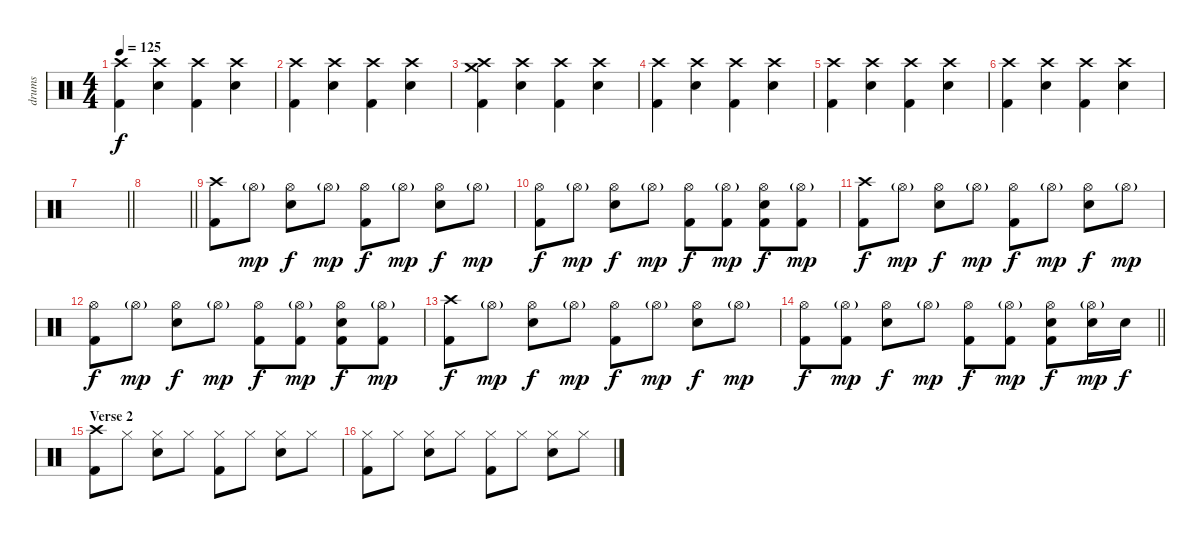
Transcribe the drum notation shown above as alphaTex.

\track ("drums" "drums") {instrument percussion}
\staff {score}
\articulation defaults
\ts (4 4)
\tempo 125
\clef neutral
\ks c
("Crash high (hit)" "Kick (hit) 2").4{dy f} ("Crash high (hit)" "Snare (hit) 2").4 ("Crash high (hit)" "Kick (hit) 2").4 ("Crash high (hit)" "Snare (hit) 2").4 |
("Crash high (hit)" "Kick (hit) 2").4 ("Crash high (hit)" "Snare (hit) 2").4 ("Crash high (hit)" "Kick (hit) 2").4 ("Crash high (hit)" "Snare (hit) 2").4 |
("Crash high (hit)" "Crash medium (hit)" "Kick (hit) 2").4 ("Crash high (hit)" "Snare (hit) 2").4 ("Crash high (hit)" "Kick (hit) 2").4 ("Crash high (hit)" "Snare (hit) 2").4 |
("Crash high (hit)" "Kick (hit) 2").4 ("Crash high (hit)" "Snare (hit) 2").4 ("Crash high (hit)" "Kick (hit) 2").4 ("Crash high (hit)" "Snare (hit) 2").4 |
("Crash high (hit)" "Kick (hit) 2").4 ("Crash high (hit)" "Snare (hit) 2").4 ("Crash high (hit)" "Kick (hit) 2").4 ("Crash high (hit)" "Snare (hit) 2").4 |
("Crash high (hit)" "Kick (hit) 2").4 ("Crash high (hit)" "Snare (hit) 2").4 ("Crash high (hit)" "Kick (hit) 2").4 ("Crash high (hit)" "Snare (hit) 2").4 |
\barLineRight lightlight
|
\barLineRight lightlight
|
("Crash high (hit)" "Kick (hit) 2").8 "Hi-Hat (open)"{g}.8{dy mp} ("Hi-Hat (open)" "Snare (hit) 2").8{dy f} "Hi-Hat (open)"{g}.8{dy mp} ("Hi-Hat (open)" "Kick (hit) 2").8{dy f} "Hi-Hat (open)"{g}.8{dy mp} ("Hi-Hat (open)" "Snare (hit) 2").8{dy f} "Hi-Hat (open)"{g}.8{dy mp} |
("Hi-Hat (open)" "Kick (hit) 2").8{dy f} "Hi-Hat (open)"{g}.8{dy mp} ("Hi-Hat (open)" "Snare (hit) 2").8{dy f} "Hi-Hat (open)"{g}.8{dy mp} ("Hi-Hat (open)" "Kick (hit) 2").8{dy f} ("Hi-Hat (open)"{g} "Kick (hit) 2").8{dy mp} ("Hi-Hat (open)" "Snare (hit) 2" "Kick (hit) 2").8{dy f} ("Hi-Hat (open)"{g} "Kick (hit) 2").8{dy mp} |
("Crash high (hit)" "Kick (hit) 2").8{dy f} "Hi-Hat (open)"{g}.8{dy mp} ("Hi-Hat (open)" "Snare (hit) 2").8{dy f} "Hi-Hat (open)"{g}.8{dy mp} ("Hi-Hat (open)" "Kick (hit) 2").8{dy f} "Hi-Hat (open)"{g}.8{dy mp} ("Hi-Hat (open)" "Snare (hit) 2").8{dy f} "Hi-Hat (open)"{g}.8{dy mp} |
("Hi-Hat (open)" "Kick (hit) 2").8{dy f} "Hi-Hat (open)"{g}.8{dy mp} ("Hi-Hat (open)" "Snare (hit) 2").8{dy f} "Hi-Hat (open)"{g}.8{dy mp} ("Hi-Hat (open)" "Kick (hit) 2").8{dy f} ("Hi-Hat (open)"{g} "Kick (hit) 2").8{dy mp} ("Hi-Hat (open)" "Snare (hit) 2" "Kick (hit) 2").8{dy f} ("Hi-Hat (open)"{g} "Kick (hit) 2").8{dy mp} |
("Crash high (hit)" "Kick (hit) 2").8{dy f} "Hi-Hat (open)"{g}.8{dy mp} ("Hi-Hat (open)" "Snare (hit) 2").8{dy f} "Hi-Hat (open)"{g}.8{dy mp} ("Hi-Hat (open)" "Kick (hit) 2").8{dy f} "Hi-Hat (open)"{g}.8{dy mp} ("Hi-Hat (open)" "Snare (hit) 2").8{dy f} "Hi-Hat (open)"{g}.8{dy mp} |
\barLineRight lightlight
("Hi-Hat (open)" "Kick (hit) 2").8{dy f} ("Hi-Hat (open)"{g} "Kick (hit) 2").8{dy mp} ("Hi-Hat (open)" "Snare (hit) 2").8{dy f} "Hi-Hat (open)"{g}.8{dy mp} ("Hi-Hat (open)" "Kick (hit) 2").8{dy f} ("Hi-Hat (open)"{g} "Kick (hit) 2").8{dy mp} ("Hi-Hat (open)" "Snare (hit) 2" "Kick (hit) 2").8{dy f} ("Hi-Hat (open)"{g} "Snare (hit) 2").16{dy mp} "Snare (hit) 2".16{dy f} |
\section ("" "Verse 2")
("Crash high (hit)" "Kick (hit) 2").8 "Hi-Hat (closed)".8 ("Hi-Hat (closed)" "Snare (hit) 2").8 "Hi-Hat (closed)".8 ("Hi-Hat (closed)" "Kick (hit) 2").8 "Hi-Hat (closed)".8 ("Hi-Hat (closed)" "Snare (hit) 2").8 "Hi-Hat (closed)".8 |
("Hi-Hat (closed)" "Kick (hit) 2").8 "Hi-Hat (closed)".8 ("Hi-Hat (closed)" "Snare (hit) 2").8 "Hi-Hat (closed)".8 ("Hi-Hat (closed)" "Kick (hit) 2").8 "Hi-Hat (closed)".8 ("Hi-Hat (closed)" "Snare (hit) 2").8 "Hi-Hat (closed)".8
